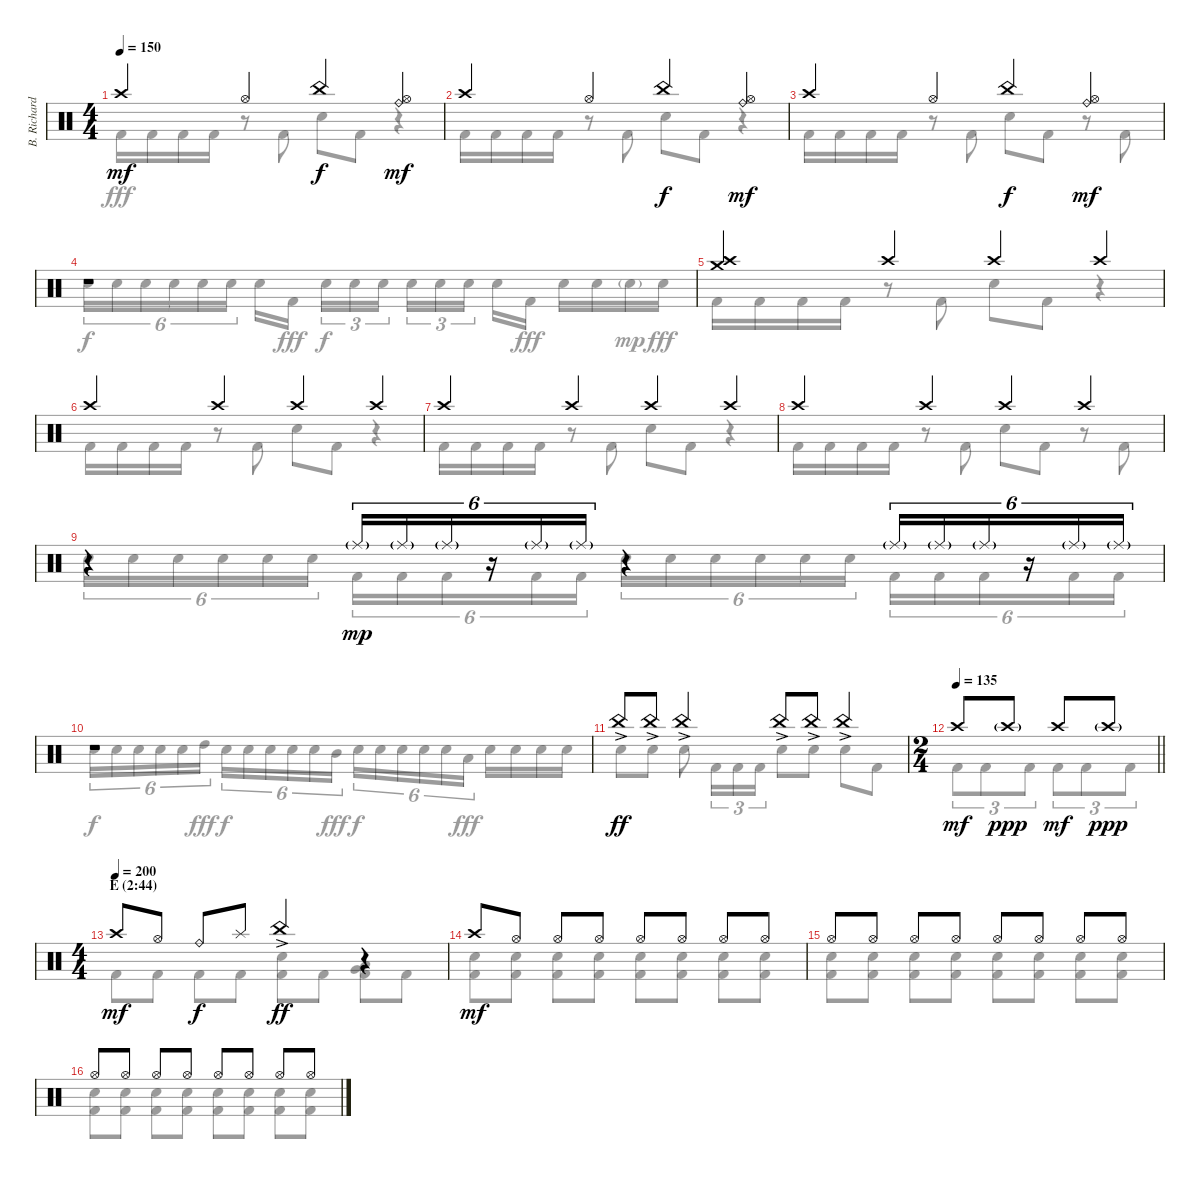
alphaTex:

\track ("B. Richardson Drums" "B. Richard") {instrument percussion}
\staff {score}
\articulation defaults
\voice
\ts (4 4)
\tempo 150
\clef neutral
\ks c "Crash high (hit)".4{dy mf} "Hi-Hat (open)".4 "China (hit)".4{dy f}
("Hi-Hat (open)" "Ride (bell)").4{dy mf} |
"Crash high (hit)".4 "Hi-Hat (open)".4 "China (hit)".4{dy f} ("Hi-Hat (open)" "Ride (bell)").4{dy mf} |
"Crash high (hit)".4 "Hi-Hat (open)".4 "China (hit)".4{dy f} ("Hi-Hat (open)" "Ride (bell)").4{dy mf} |
r.1 |
("Crash high (hit)" "Crash medium (hit)").4 "Crash high (hit)".4 "Crash high (hit)".4 "Crash high (hit)".4 |
"Crash high (hit)".4 "Crash high (hit)".4 "Crash high (hit)".4 "Crash high (hit)".4 |
"Crash high (hit)".4 "Crash high (hit)".4 "Crash high (hit)".4 "Crash high (hit)".4 |
"Crash high (hit)".4 "Crash high (hit)".4 "Crash high (hit)".4 "Crash high (hit)".4 |
r.4 "Ride (middle)"{g}.16{tu (6 4) dy mp} "Ride (middle)"{g}.16{tu (6 4)} "Ride (middle)"{g}.16{tu (6 4)} r.16{tu (6 4)} "Ride (middle)"{g}.16{tu (6 4)} "Ride (middle)"{g}.16{tu (6 4)} r.4 "Ride (middle)"{g}.16{tu (6 4)} "Ride (middle)"{g}.16{tu (6 4)} "Ride (middle)"{g}.16{tu (6 4)} r.16{tu (6 4)} "Ride (middle)"{g}.16{tu (6 4)} "Ride (middle)"{g}.16{tu (6 4)} |
r.1 |
"China (hit)"{ac}.8{dy ff} "China (hit)"{ac}.8 "China (hit)"{ac}.4 "China (hit)"{ac}.8 "China (hit)"{ac}.8 "China (hit)"{ac}.4 |
\ts (2 4)
\tempo 135
\barLineRight lightlight "Crash high (hit)".8{dy mf} "Crash high (hit)"{g}.8{dy ppp} "Crash high (hit)".8{dy mf} "Crash high (hit)"{g}.8{dy ppp}
|
\ts (4 4)
\section ("" "E (2:44)")
\tempo (200)
"Crash high (hit)".8{dy mf} "Hi-Hat (open)".8 "Ride (bell)".8{dy f} "Splash (hit)".8 "China (hit)"{ac}.4{dy ff} r.4 |
"Crash high (hit)".8{dy mf} "Hi-Hat (open)".8 "Hi-Hat (open)".8 "Hi-Hat (open)".8 "Hi-Hat (open)".8 "Hi-Hat (open)".8 "Hi-Hat (open)".8 "Hi-Hat (open)".8 |
"Hi-Hat (open)".8 "Hi-Hat (open)".8 "Hi-Hat (open)".8 "Hi-Hat (open)".8 "Hi-Hat (open)".8 "Hi-Hat (open)".8 "Hi-Hat (open)".8 "Hi-Hat (open)".8 |
"Hi-Hat (open)".8 "Hi-Hat (open)".8 "Hi-Hat (open)".8 "Hi-Hat (open)".8 "Hi-Hat (open)".8 "Hi-Hat (open)".8 "Hi-Hat (open)".8 "Hi-Hat (open)".8
\voice
\clef neutral
\ottava regular
\simile none
\ks c "Kick (hit) 2".16{dy fff} "Kick (hit) 2".16 "Kick (hit) 2".16 "Kick (hit) 2".16
r.8 "Kick (hit) 2".8 "Electric Snare (hit)".8 "Kick (hit) 2".8 r.4 |
"Kick (hit) 2".16 "Kick (hit) 2".16 "Kick (hit) 2".16 "Kick (hit) 2".16 r.8 "Kick (hit) 2".8 "Electric Snare (hit)".8 "Kick (hit) 2".8 r.4 |
"Kick (hit) 2".16 "Kick (hit) 2".16 "Kick (hit) 2".16 "Kick (hit) 2".16 r.8 "Kick (hit) 2".8 "Electric Snare (hit)".8 "Kick (hit) 2".8 r.8 "Kick (hit) 2".8 |
"Electric Snare (hit)".16{tu (6 4) dy f} "Electric Snare (hit)".16{tu (6 4)} "Electric Snare (hit)".16{tu (6 4)} "Electric Snare (hit)".16{tu (6 4)} "Electric Snare (hit)".16{tu (6 4)} "Electric Snare (hit)".16{tu (6 4)} "Electric Snare (hit)".16 "Kick (hit) 2".16{dy fff beam splitsecondary} "Electric Snare (hit)".16{tu (3 2) dy f} "Electric Snare (hit)".16{tu (3 2)} "Electric Snare (hit)".16{tu (3 2)} "Electric Snare (hit)".16{tu (3 2)} "Electric Snare (hit)".16{tu (3 2)} "Electric Snare (hit)".16{tu (3 2) beam splitsecondary} "Electric Snare (hit)".16 "Kick (hit) 2".16{dy fff} "Electric Snare (hit)".16 "Electric Snare (hit)".16 "Electric Snare (hit)"{g}.16{dy mp} "Electric Snare (hit)".16{dy fff} |
"Kick (hit) 2".16 "Kick (hit) 2".16 "Kick (hit) 2".16 "Kick (hit) 2".16 r.8 "Kick (hit) 2".8 "Electric Snare (hit)".8 "Kick (hit) 2".8 r.4 |
"Kick (hit) 2".16 "Kick (hit) 2".16 "Kick (hit) 2".16 "Kick (hit) 2".16 r.8 "Kick (hit) 2".8 "Electric Snare (hit)".8 "Kick (hit) 2".8 r.4 |
"Kick (hit) 2".16 "Kick (hit) 2".16 "Kick (hit) 2".16 "Kick (hit) 2".16 r.8 "Kick (hit) 2".8 "Electric Snare (hit)".8 "Kick (hit) 2".8 r.4 |
"Kick (hit) 2".16 "Kick (hit) 2".16 "Kick (hit) 2".16 "Kick (hit) 2".16 r.8 "Kick (hit) 2".8 "Electric Snare (hit)".8 "Kick (hit) 2".8 r.8 "Kick (hit) 2".8 |
"Electric Snare (hit)".16{tu (6 4)} "Electric Snare (hit)".16{tu (6 4)} "Electric Snare (hit)".16{tu (6 4)} "Electric Snare (hit)".16{tu (6 4)} "Electric Snare (hit)".16{tu (6 4)} "Electric Snare (hit)".16{tu (6 4)} "Kick (hit) 2".16{tu (6 4)} "Kick (hit) 2".16{tu (6 4)} "Kick (hit) 2".16{tu (6 4)} r.16{tu (6 4)} "Kick (hit) 2".16{tu (6 4)} "Kick (hit) 2".16{tu (6 4)} "Electric Snare (hit)".16{tu (6 4)} "Electric Snare (hit)".16{tu (6 4)} "Electric Snare (hit)".16{tu (6 4)} "Electric Snare (hit)".16{tu (6 4)} "Electric Snare (hit)".16{tu (6 4)} "Electric Snare (hit)".16{tu (6 4)} "Kick (hit) 2".16{tu (6 4)} "Kick (hit) 2".16{tu (6 4)} "Kick (hit) 2".16{tu (6 4)} r.16{tu (6 4)} "Kick (hit) 2".16{tu (6 4)} "Kick (hit) 2".16{tu (6 4)} |
"Electric Snare (hit)".16{tu (6 4) dy f} "Electric Snare (hit)".16{tu (6 4)} "Electric Snare (hit)".16{tu (6 4)} "Electric Snare (hit)".16{tu (6 4)} "Electric Snare (hit)".16{tu (6 4)} "High Tom (hit)".16{tu (6 4) dy fff} "Electric Snare (hit)".16{tu (6 4) dy f} "Electric Snare (hit)".16{tu (6 4)} "Electric Snare (hit)".16{tu (6 4)} "Electric Snare (hit)".16{tu (6 4)} "Electric Snare (hit)".16{tu (6 4)} "Mid Tom (hit)".16{tu (6 4) dy fff} "Electric Snare (hit)".16{tu (6 4) dy f} "Electric Snare (hit)".16{tu (6 4)} "Electric Snare (hit)".16{tu (6 4)} "Electric Snare (hit)".16{tu (6 4)} "Electric Snare (hit)".16{tu (6 4)} "Low Tom (hit)".16{tu (6 4) dy fff} "Electric Snare (hit)".16 "Electric Snare (hit)".16 "Electric Snare (hit)".16 "Electric Snare (hit)".16 |
"Electric Snare (hit)".8 "Electric Snare (hit)".8 "Electric Snare (hit)".8 "Kick (hit) 2".16{tu (3 2)} "Kick (hit) 2".16{tu (3 2)} "Kick (hit) 2".16{tu (3 2)} "Electric Snare (hit)".8 "Electric Snare (hit)".8 "Electric Snare (hit)".8 "Kick (hit) 2".8 |
\barLineRight lightlight "Kick (hit) 2".8{tu (3 2)} "Kick (hit) 2".8{tu (3 2)} "Kick (hit) 2".8{tu (3 2)} "Kick (hit) 2".8{tu (3 2)} "Kick (hit) 2".8{tu (3 2)} "Kick (hit) 2".8{tu (3 2)}
|
"Kick (hit) 2".8 "Kick (hit) 2".8 "Kick (hit) 2".8 "Kick (hit) 2".8 ("Electric Snare (hit)" "Kick (hit) 2").8 "Kick (hit) 2".8 ("Low Tom (hit)" "Very Low Tom (hit)" "Kick (hit) 2").8 "Kick (hit) 2".8 |
("Electric Snare (hit)" "Kick (hit) 2").8 ("Electric Snare (hit)" "Kick (hit) 2").8 ("Electric Snare (hit)" "Kick (hit) 2").8 ("Electric Snare (hit)" "Kick (hit) 2").8 ("Electric Snare (hit)" "Kick (hit) 2").8 ("Electric Snare (hit)" "Kick (hit) 2").8 ("Electric Snare (hit)" "Kick (hit) 2").8 ("Electric Snare (hit)" "Kick (hit) 2").8 |
("Electric Snare (hit)" "Kick (hit) 2").8 ("Electric Snare (hit)" "Kick (hit) 2").8 ("Electric Snare (hit)" "Kick (hit) 2").8 ("Electric Snare (hit)" "Kick (hit) 2").8 ("Electric Snare (hit)" "Kick (hit) 2").8 ("Electric Snare (hit)" "Kick (hit) 2").8 ("Electric Snare (hit)" "Kick (hit) 2").8 ("Electric Snare (hit)" "Kick (hit) 2").8 |
("Electric Snare (hit)" "Kick (hit) 2").8 ("Electric Snare (hit)" "Kick (hit) 2").8 ("Electric Snare (hit)" "Kick (hit) 2").8 ("Electric Snare (hit)" "Kick (hit) 2").8 ("Electric Snare (hit)" "Kick (hit) 2").8 ("Electric Snare (hit)" "Kick (hit) 2").8 ("Electric Snare (hit)" "Kick (hit) 2").8 ("Electric Snare (hit)" "Kick (hit) 2").8
